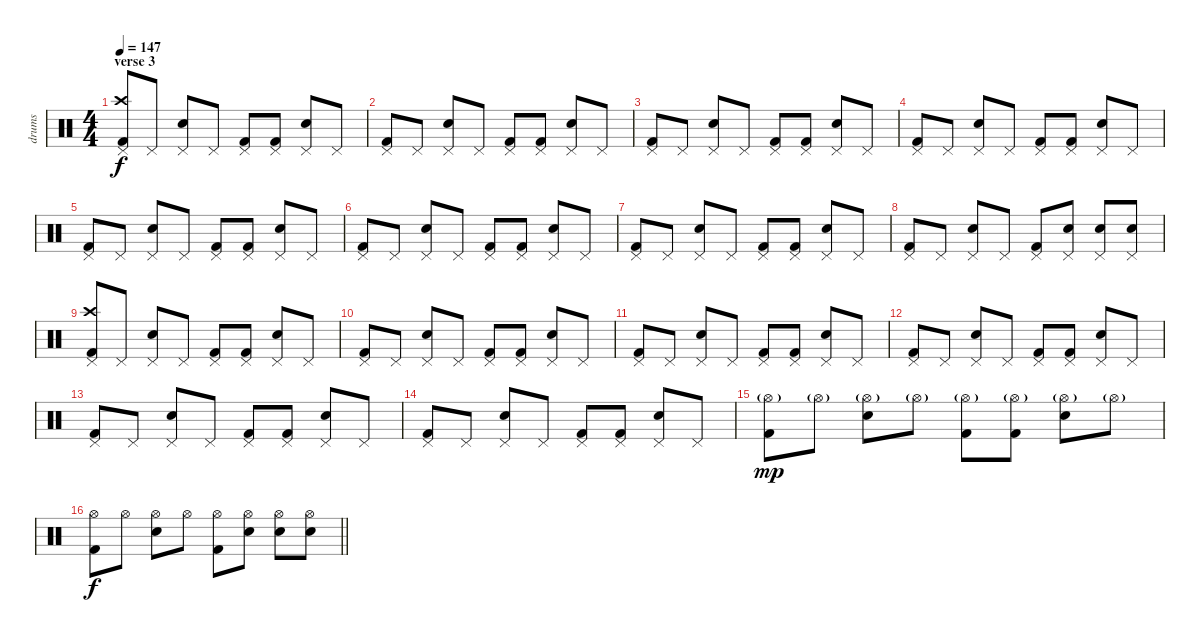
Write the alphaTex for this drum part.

\track ("drums" "drums") {instrument percussion}
\staff {score}
\articulation defaults
\ts (4 4)
\section ("" "verse 3")
\tempo 147
\clef neutral
\ks c
("Kick (hit) 2" "Crash high (hit)" "Pedal Hi-Hat (hit)").8{dy f} "Pedal Hi-Hat (hit)".8 ("Snare (hit) 2" "Pedal Hi-Hat (hit)").8 "Pedal Hi-Hat (hit)".8 ("Kick (hit) 2" "Pedal Hi-Hat (hit)").8 ("Kick (hit) 2" "Pedal Hi-Hat (hit)").8 ("Snare (hit) 2" "Pedal Hi-Hat (hit)").8 "Pedal Hi-Hat (hit)".8 |
("Kick (hit) 2" "Pedal Hi-Hat (hit)").8 "Pedal Hi-Hat (hit)".8 ("Snare (hit) 2" "Pedal Hi-Hat (hit)").8 "Pedal Hi-Hat (hit)".8 ("Kick (hit) 2" "Pedal Hi-Hat (hit)").8 ("Kick (hit) 2" "Pedal Hi-Hat (hit)").8 ("Snare (hit) 2" "Pedal Hi-Hat (hit)").8 "Pedal Hi-Hat (hit)".8 |
("Kick (hit) 2" "Pedal Hi-Hat (hit)").8 "Pedal Hi-Hat (hit)".8 ("Snare (hit) 2" "Pedal Hi-Hat (hit)").8 "Pedal Hi-Hat (hit)".8 ("Kick (hit) 2" "Pedal Hi-Hat (hit)").8 ("Kick (hit) 2" "Pedal Hi-Hat (hit)").8 ("Snare (hit) 2" "Pedal Hi-Hat (hit)").8 "Pedal Hi-Hat (hit)".8 |
("Kick (hit) 2" "Pedal Hi-Hat (hit)").8 "Pedal Hi-Hat (hit)".8 ("Snare (hit) 2" "Pedal Hi-Hat (hit)").8 "Pedal Hi-Hat (hit)".8 ("Kick (hit) 2" "Pedal Hi-Hat (hit)").8 ("Kick (hit) 2" "Pedal Hi-Hat (hit)").8 ("Snare (hit) 2" "Pedal Hi-Hat (hit)").8 "Pedal Hi-Hat (hit)".8 |
("Kick (hit) 2" "Pedal Hi-Hat (hit)").8 "Pedal Hi-Hat (hit)".8 ("Snare (hit) 2" "Pedal Hi-Hat (hit)").8 "Pedal Hi-Hat (hit)".8 ("Kick (hit) 2" "Pedal Hi-Hat (hit)").8 ("Kick (hit) 2" "Pedal Hi-Hat (hit)").8 ("Snare (hit) 2" "Pedal Hi-Hat (hit)").8 "Pedal Hi-Hat (hit)".8 |
("Kick (hit) 2" "Pedal Hi-Hat (hit)").8 "Pedal Hi-Hat (hit)".8 ("Snare (hit) 2" "Pedal Hi-Hat (hit)").8 "Pedal Hi-Hat (hit)".8 ("Kick (hit) 2" "Pedal Hi-Hat (hit)").8 ("Kick (hit) 2" "Pedal Hi-Hat (hit)").8 ("Snare (hit) 2" "Pedal Hi-Hat (hit)").8 "Pedal Hi-Hat (hit)".8 |
("Kick (hit) 2" "Pedal Hi-Hat (hit)").8 "Pedal Hi-Hat (hit)".8 ("Snare (hit) 2" "Pedal Hi-Hat (hit)").8 "Pedal Hi-Hat (hit)".8 ("Kick (hit) 2" "Pedal Hi-Hat (hit)").8 ("Kick (hit) 2" "Pedal Hi-Hat (hit)").8 ("Snare (hit) 2" "Pedal Hi-Hat (hit)").8 "Pedal Hi-Hat (hit)".8 |
("Kick (hit) 2" "Pedal Hi-Hat (hit)").8 "Pedal Hi-Hat (hit)".8 ("Snare (hit) 2" "Pedal Hi-Hat (hit)").8 "Pedal Hi-Hat (hit)".8 ("Kick (hit) 2" "Pedal Hi-Hat (hit)").8 ("Snare (hit) 2" "Pedal Hi-Hat (hit)").8 ("Snare (hit) 2" "Pedal Hi-Hat (hit)").8 ("Snare (hit) 2" "Pedal Hi-Hat (hit)").8 |
("Kick (hit) 2" "Crash high (hit)" "Pedal Hi-Hat (hit)").8 "Pedal Hi-Hat (hit)".8 ("Snare (hit) 2" "Pedal Hi-Hat (hit)").8 "Pedal Hi-Hat (hit)".8 ("Kick (hit) 2" "Pedal Hi-Hat (hit)").8 ("Kick (hit) 2" "Pedal Hi-Hat (hit)").8 ("Snare (hit) 2" "Pedal Hi-Hat (hit)").8 "Pedal Hi-Hat (hit)".8 |
("Kick (hit) 2" "Pedal Hi-Hat (hit)").8 "Pedal Hi-Hat (hit)".8 ("Snare (hit) 2" "Pedal Hi-Hat (hit)").8 "Pedal Hi-Hat (hit)".8 ("Kick (hit) 2" "Pedal Hi-Hat (hit)").8 ("Kick (hit) 2" "Pedal Hi-Hat (hit)").8 ("Snare (hit) 2" "Pedal Hi-Hat (hit)").8 "Pedal Hi-Hat (hit)".8 |
("Kick (hit) 2" "Pedal Hi-Hat (hit)").8 "Pedal Hi-Hat (hit)".8 ("Snare (hit) 2" "Pedal Hi-Hat (hit)").8 "Pedal Hi-Hat (hit)".8 ("Kick (hit) 2" "Pedal Hi-Hat (hit)").8 ("Kick (hit) 2" "Pedal Hi-Hat (hit)").8 ("Snare (hit) 2" "Pedal Hi-Hat (hit)").8 "Pedal Hi-Hat (hit)".8 |
("Kick (hit) 2" "Pedal Hi-Hat (hit)").8 "Pedal Hi-Hat (hit)".8 ("Snare (hit) 2" "Pedal Hi-Hat (hit)").8 "Pedal Hi-Hat (hit)".8 ("Kick (hit) 2" "Pedal Hi-Hat (hit)").8 ("Kick (hit) 2" "Pedal Hi-Hat (hit)").8 ("Snare (hit) 2" "Pedal Hi-Hat (hit)").8 "Pedal Hi-Hat (hit)".8 |
("Kick (hit) 2" "Pedal Hi-Hat (hit)").8 "Pedal Hi-Hat (hit)".8 ("Snare (hit) 2" "Pedal Hi-Hat (hit)").8 "Pedal Hi-Hat (hit)".8 ("Kick (hit) 2" "Pedal Hi-Hat (hit)").8 ("Kick (hit) 2" "Pedal Hi-Hat (hit)").8 ("Snare (hit) 2" "Pedal Hi-Hat (hit)").8 "Pedal Hi-Hat (hit)".8 |
("Kick (hit) 2" "Pedal Hi-Hat (hit)").8 "Pedal Hi-Hat (hit)".8 ("Snare (hit) 2" "Pedal Hi-Hat (hit)").8 "Pedal Hi-Hat (hit)".8 ("Kick (hit) 2" "Pedal Hi-Hat (hit)").8 ("Kick (hit) 2" "Pedal Hi-Hat (hit)").8 ("Snare (hit) 2" "Pedal Hi-Hat (hit)").8 "Pedal Hi-Hat (hit)".8 |
("Kick (hit) 2" "Hi-Hat (open)"{g}).8{dy mp} "Hi-Hat (open)"{g}.8 ("Snare (hit) 2" "Hi-Hat (open)"{g}).8 "Hi-Hat (open)"{g}.8 ("Kick (hit) 2" "Hi-Hat (open)"{g}).8 ("Kick (hit) 2" "Hi-Hat (open)"{g}).8 ("Snare (hit) 2" "Hi-Hat (open)"{g}).8 "Hi-Hat (open)"{g}.8 |
\barLineRight lightlight
("Kick (hit) 2" "Hi-Hat (open)").8{dy f} "Hi-Hat (open)".8 ("Snare (hit) 2" "Hi-Hat (open)").8 "Hi-Hat (open)".8 ("Kick (hit) 2" "Hi-Hat (open)").8 ("Snare (hit) 2" "Hi-Hat (open)").8 ("Snare (hit) 2" "Hi-Hat (open)").8 ("Snare (hit) 2" "Hi-Hat (open)").8
